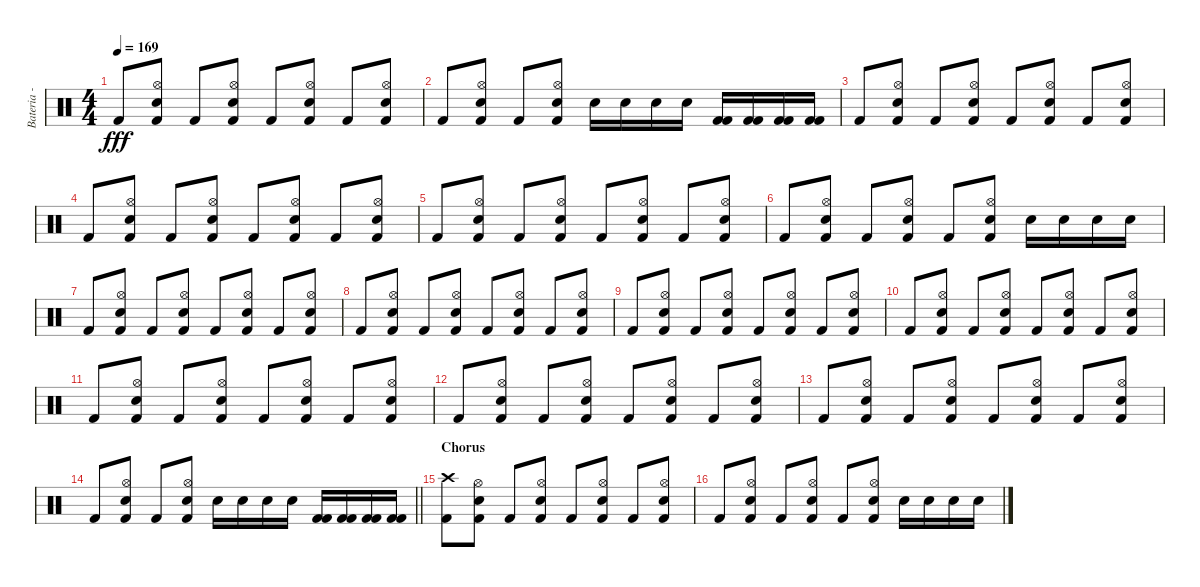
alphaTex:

\track ("Bateria - Larzon" "Bateria - ") {instrument percussion}
\staff {score}
\articulation defaults
\ts (4 4)
\tempo 169
\clef neutral
\ks c "Kick (hit) 2".8{dy fff}
("Kick (hit) 2" "Hi-Hat (open)" "Snare (hit) 2").8 "Kick (hit) 2".8 ("Kick (hit) 2" "Hi-Hat (open)" "Snare (hit) 2").8 "Kick (hit) 2".8 ("Kick (hit) 2" "Hi-Hat (open)" "Snare (hit) 2").8 "Kick (hit) 2".8 ("Kick (hit) 2" "Hi-Hat (open)" "Snare (hit) 2").8 |
"Kick (hit) 2".8 ("Kick (hit) 2" "Hi-Hat (open)" "Snare (hit) 2").8 "Kick (hit) 2".8 ("Kick (hit) 2" "Hi-Hat (open)" "Snare (hit) 2").8 "Snare (hit) 2".16 "Snare (hit) 2".16 "Snare (hit) 2".16 "Snare (hit) 2".16 ("Kick (hit) 2" "Kick (hit) 2").16 ("Kick (hit) 2" "Kick (hit) 2").16 ("Kick (hit) 2" "Kick (hit) 2").16 ("Kick (hit) 2" "Kick (hit) 2").16 |
"Kick (hit) 2".8 ("Kick (hit) 2" "Hi-Hat (open)" "Snare (hit) 2").8 "Kick (hit) 2".8 ("Kick (hit) 2" "Hi-Hat (open)" "Snare (hit) 2").8 "Kick (hit) 2".8 ("Kick (hit) 2" "Hi-Hat (open)" "Snare (hit) 2").8 "Kick (hit) 2".8 ("Kick (hit) 2" "Hi-Hat (open)" "Snare (hit) 2").8 |
"Kick (hit) 2".8 ("Kick (hit) 2" "Hi-Hat (open)" "Snare (hit) 2").8 "Kick (hit) 2".8 ("Kick (hit) 2" "Hi-Hat (open)" "Snare (hit) 2").8 "Kick (hit) 2".8 ("Kick (hit) 2" "Hi-Hat (open)" "Snare (hit) 2").8 "Kick (hit) 2".8 ("Kick (hit) 2" "Hi-Hat (open)" "Snare (hit) 2").8 |
"Kick (hit) 2".8 ("Kick (hit) 2" "Hi-Hat (open)" "Snare (hit) 2").8 "Kick (hit) 2".8 ("Kick (hit) 2" "Hi-Hat (open)" "Snare (hit) 2").8 "Kick (hit) 2".8 ("Kick (hit) 2" "Hi-Hat (open)" "Snare (hit) 2").8 "Kick (hit) 2".8 ("Kick (hit) 2" "Hi-Hat (open)" "Snare (hit) 2").8 |
"Kick (hit) 2".8 ("Kick (hit) 2" "Hi-Hat (open)" "Snare (hit) 2").8 "Kick (hit) 2".8 ("Kick (hit) 2" "Hi-Hat (open)" "Snare (hit) 2").8 "Kick (hit) 2".8 ("Kick (hit) 2" "Hi-Hat (open)" "Snare (hit) 2").8 "Snare (hit) 2".16 "Snare (hit) 2".16 "Snare (hit) 2".16 "Snare (hit) 2".16 |
"Kick (hit) 2".8 ("Kick (hit) 2" "Hi-Hat (open)" "Snare (hit) 2").8 "Kick (hit) 2".8 ("Kick (hit) 2" "Hi-Hat (open)" "Snare (hit) 2").8 "Kick (hit) 2".8 ("Kick (hit) 2" "Hi-Hat (open)" "Snare (hit) 2").8 "Kick (hit) 2".8 ("Kick (hit) 2" "Hi-Hat (open)" "Snare (hit) 2").8 |
"Kick (hit) 2".8 ("Kick (hit) 2" "Hi-Hat (open)" "Snare (hit) 2").8 "Kick (hit) 2".8 ("Kick (hit) 2" "Hi-Hat (open)" "Snare (hit) 2").8 "Kick (hit) 2".8 ("Kick (hit) 2" "Hi-Hat (open)" "Snare (hit) 2").8 "Kick (hit) 2".8 ("Kick (hit) 2" "Hi-Hat (open)" "Snare (hit) 2").8 |
"Kick (hit) 2".8 ("Kick (hit) 2" "Hi-Hat (open)" "Snare (hit) 2").8 "Kick (hit) 2".8 ("Kick (hit) 2" "Hi-Hat (open)" "Snare (hit) 2").8 "Kick (hit) 2".8 ("Kick (hit) 2" "Hi-Hat (open)" "Snare (hit) 2").8 "Kick (hit) 2".8 ("Kick (hit) 2" "Hi-Hat (open)" "Snare (hit) 2").8 |
"Kick (hit) 2".8 ("Kick (hit) 2" "Hi-Hat (open)" "Snare (hit) 2").8 "Kick (hit) 2".8 ("Kick (hit) 2" "Hi-Hat (open)" "Snare (hit) 2").8 "Kick (hit) 2".8 ("Kick (hit) 2" "Hi-Hat (open)" "Snare (hit) 2").8 "Kick (hit) 2".8 ("Kick (hit) 2" "Hi-Hat (open)" "Snare (hit) 2").8 |
"Kick (hit) 2".8 ("Kick (hit) 2" "Hi-Hat (open)" "Snare (hit) 2").8 "Kick (hit) 2".8 ("Kick (hit) 2" "Hi-Hat (open)" "Snare (hit) 2").8 "Kick (hit) 2".8 ("Kick (hit) 2" "Hi-Hat (open)" "Snare (hit) 2").8 "Kick (hit) 2".8 ("Kick (hit) 2" "Hi-Hat (open)" "Snare (hit) 2").8 |
"Kick (hit) 2".8 ("Kick (hit) 2" "Hi-Hat (open)" "Snare (hit) 2").8 "Kick (hit) 2".8 ("Kick (hit) 2" "Hi-Hat (open)" "Snare (hit) 2").8 "Kick (hit) 2".8 ("Kick (hit) 2" "Hi-Hat (open)" "Snare (hit) 2").8 "Kick (hit) 2".8 ("Kick (hit) 2" "Hi-Hat (open)" "Snare (hit) 2").8 |
"Kick (hit) 2".8 ("Kick (hit) 2" "Hi-Hat (open)" "Snare (hit) 2").8 "Kick (hit) 2".8 ("Kick (hit) 2" "Hi-Hat (open)" "Snare (hit) 2").8 "Kick (hit) 2".8 ("Kick (hit) 2" "Hi-Hat (open)" "Snare (hit) 2").8 "Kick (hit) 2".8 ("Kick (hit) 2" "Hi-Hat (open)" "Snare (hit) 2").8 |
\barLineRight lightlight "Kick (hit) 2".8
("Kick (hit) 2" "Hi-Hat (open)" "Snare (hit) 2").8 "Kick (hit) 2".8 ("Kick (hit) 2" "Hi-Hat (open)" "Snare (hit) 2").8 "Snare (hit) 2".16 "Snare (hit) 2".16 "Snare (hit) 2".16 "Snare (hit) 2".16 ("Kick (hit) 2" "Kick (hit) 2").16 ("Kick (hit) 2" "Kick (hit) 2").16 ("Kick (hit) 2" "Kick (hit) 2").16 ("Kick (hit) 2" "Kick (hit) 2").16 |
\section ("" "Chorus")
("Crash high (hit)" "Kick (hit) 2").8 ("Kick (hit) 2" "Hi-Hat (open)" "Snare (hit) 2").8 "Kick (hit) 2".8 ("Kick (hit) 2" "Hi-Hat (open)" "Snare (hit) 2").8 "Kick (hit) 2".8 ("Kick (hit) 2" "Hi-Hat (open)" "Snare (hit) 2").8 "Kick (hit) 2".8 ("Kick (hit) 2" "Hi-Hat (open)" "Snare (hit) 2").8 |
"Kick (hit) 2".8 ("Kick (hit) 2" "Hi-Hat (open)" "Snare (hit) 2").8 "Kick (hit) 2".8 ("Kick (hit) 2" "Hi-Hat (open)" "Snare (hit) 2").8 "Kick (hit) 2".8 ("Kick (hit) 2" "Hi-Hat (open)" "Snare (hit) 2").8 "Snare (hit) 2".16 "Snare (hit) 2".16 "Snare (hit) 2".16 "Snare (hit) 2".16
